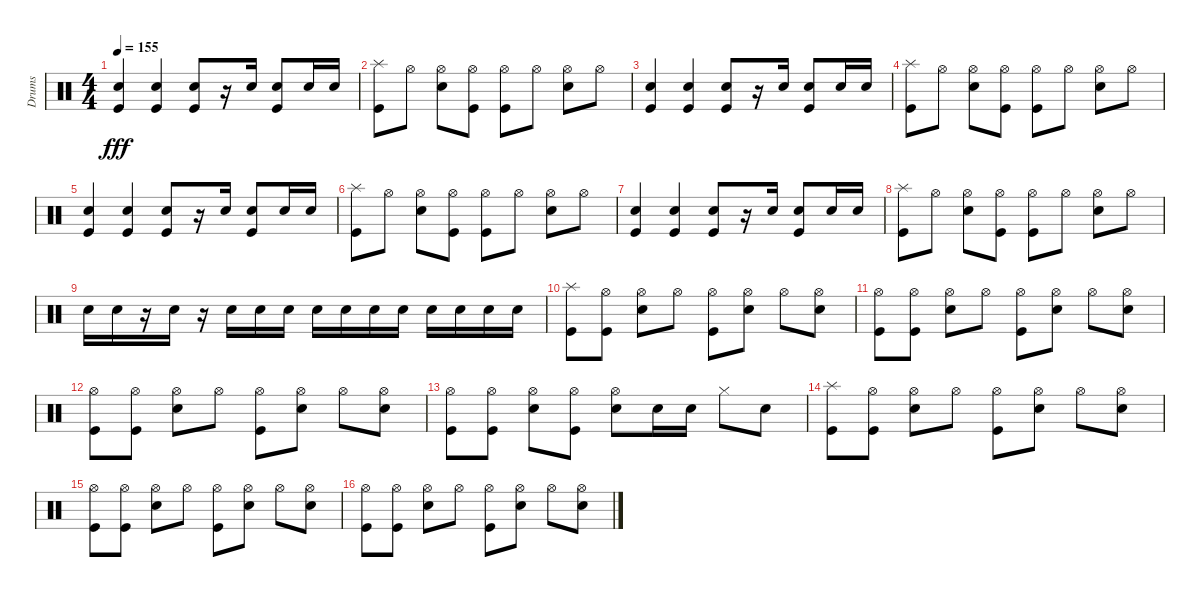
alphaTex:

\track ("Drums" "Drums") {instrument percussion}
\staff {score}
\articulation defaults
\ts (4 4)
\tempo 155
\clef neutral
\ks c
("Snare (hit) 2" "Kick (hit)").4{dy fff} ("Snare (hit) 2" "Kick (hit)").4 ("Snare (hit) 2" "Kick (hit)").8 r.16 "Snare (hit) 2".16 ("Snare (hit) 2" "Kick (hit)").8 "Snare (hit) 2".16 "Snare (hit) 2".16 |
("Splash (hit)" "Kick (hit)").8 "Hi-Hat (open)".8 ("Hi-Hat (open)" "Snare (hit) 2").8 ("Hi-Hat (open)" "Kick (hit)").8 ("Hi-Hat (open)" "Kick (hit)").8 "Hi-Hat (open)".8 ("Hi-Hat (open)" "Snare (hit) 2").8 "Hi-Hat (open)".8 |
("Snare (hit) 2" "Kick (hit)").4 ("Snare (hit) 2" "Kick (hit)").4 ("Snare (hit) 2" "Kick (hit)").8 r.16 "Snare (hit) 2".16 ("Snare (hit) 2" "Kick (hit)").8 "Snare (hit) 2".16 "Snare (hit) 2".16 |
("Splash (hit)" "Kick (hit)").8 "Hi-Hat (open)".8 ("Hi-Hat (open)" "Snare (hit) 2").8 ("Hi-Hat (open)" "Kick (hit)").8 ("Hi-Hat (open)" "Kick (hit)").8 "Hi-Hat (open)".8 ("Hi-Hat (open)" "Snare (hit) 2").8 "Hi-Hat (open)".8 |
("Snare (hit) 2" "Kick (hit)").4 ("Snare (hit) 2" "Kick (hit)").4 ("Snare (hit) 2" "Kick (hit)").8 r.16 "Snare (hit) 2".16 ("Snare (hit) 2" "Kick (hit)").8 "Snare (hit) 2".16 "Snare (hit) 2".16 |
("Splash (hit)" "Kick (hit)").8 "Hi-Hat (open)".8 ("Hi-Hat (open)" "Snare (hit) 2").8 ("Hi-Hat (open)" "Kick (hit)").8 ("Hi-Hat (open)" "Kick (hit)").8 "Hi-Hat (open)".8 ("Hi-Hat (open)" "Snare (hit) 2").8 "Hi-Hat (open)".8 |
("Snare (hit) 2" "Kick (hit)").4 ("Snare (hit) 2" "Kick (hit)").4 ("Snare (hit) 2" "Kick (hit)").8 r.16 "Snare (hit) 2".16 ("Snare (hit) 2" "Kick (hit)").8 "Snare (hit) 2".16 "Snare (hit) 2".16 |
("Splash (hit)" "Kick (hit)").8 "Hi-Hat (open)".8 ("Hi-Hat (open)" "Snare (hit) 2").8 ("Hi-Hat (open)" "Kick (hit)").8 ("Hi-Hat (open)" "Kick (hit)").8 "Hi-Hat (open)".8 ("Hi-Hat (open)" "Snare (hit) 2").8 "Hi-Hat (open)".8 |
"Snare (hit) 2".16 "Snare (hit) 2".16 r.16 "Snare (hit) 2".16 r.16 "Snare (hit) 2".16 "Snare (hit) 2".16 "Snare (hit) 2".16 "Snare (hit) 2".16 "Snare (hit) 2".16 "Snare (hit) 2".16 "Snare (hit) 2".16 "Snare (hit) 2".16 "Snare (hit) 2".16 "Snare (hit) 2".16 "Snare (hit) 2".16 |
("Splash (hit)" "Kick (hit)").8 ("Hi-Hat (open)" "Kick (hit)").8 ("Hi-Hat (open)" "Snare (hit) 2").8 "Hi-Hat (open)".8 ("Hi-Hat (open)" "Kick (hit)").8 ("Hi-Hat (open)" "Snare (hit) 2").8 "Hi-Hat (open)".8 ("Hi-Hat (open)" "Snare (hit) 2").8 |
("Hi-Hat (open)" "Kick (hit)").8 ("Hi-Hat (open)" "Kick (hit)").8 ("Hi-Hat (open)" "Snare (hit) 2").8 "Hi-Hat (open)".8 ("Hi-Hat (open)" "Kick (hit)").8 ("Hi-Hat (open)" "Snare (hit) 2").8 "Hi-Hat (open)".8 ("Hi-Hat (open)" "Snare (hit) 2").8 |
("Hi-Hat (open)" "Kick (hit)").8 ("Hi-Hat (open)" "Kick (hit)").8 ("Hi-Hat (open)" "Snare (hit) 2").8 "Hi-Hat (open)".8 ("Hi-Hat (open)" "Kick (hit)").8 ("Hi-Hat (open)" "Snare (hit) 2").8 "Hi-Hat (open)".8 ("Hi-Hat (open)" "Snare (hit) 2").8 |
("Hi-Hat (open)" "Kick (hit)").8 ("Hi-Hat (open)" "Kick (hit)").8 ("Hi-Hat (open)" "Snare (hit) 2").8 ("Hi-Hat (open)" "Kick (hit)").8 ("Hi-Hat (open)" "Snare (hit) 2").8 "Snare (hit) 2".16 "Snare (hit) 2".16 "Hi-Hat (closed)".8 "Snare (hit) 2".8 |
("Splash (hit)" "Kick (hit)").8 ("Hi-Hat (open)" "Kick (hit)").8 ("Hi-Hat (open)" "Snare (hit) 2").8 "Hi-Hat (open)".8 ("Hi-Hat (open)" "Kick (hit)").8 ("Hi-Hat (open)" "Snare (hit) 2").8 "Hi-Hat (open)".8 ("Hi-Hat (open)" "Snare (hit) 2").8 |
("Hi-Hat (open)" "Kick (hit)").8 ("Hi-Hat (open)" "Kick (hit)").8 ("Hi-Hat (open)" "Snare (hit) 2").8 "Hi-Hat (open)".8 ("Hi-Hat (open)" "Kick (hit)").8 ("Hi-Hat (open)" "Snare (hit) 2").8 "Hi-Hat (open)".8 ("Hi-Hat (open)" "Snare (hit) 2").8 |
("Hi-Hat (open)" "Kick (hit)").8 ("Hi-Hat (open)" "Kick (hit)").8 ("Hi-Hat (open)" "Snare (hit) 2").8 "Hi-Hat (open)".8 ("Hi-Hat (open)" "Kick (hit)").8 ("Hi-Hat (open)" "Snare (hit) 2").8 "Hi-Hat (open)".8 ("Hi-Hat (open)" "Snare (hit) 2").8
